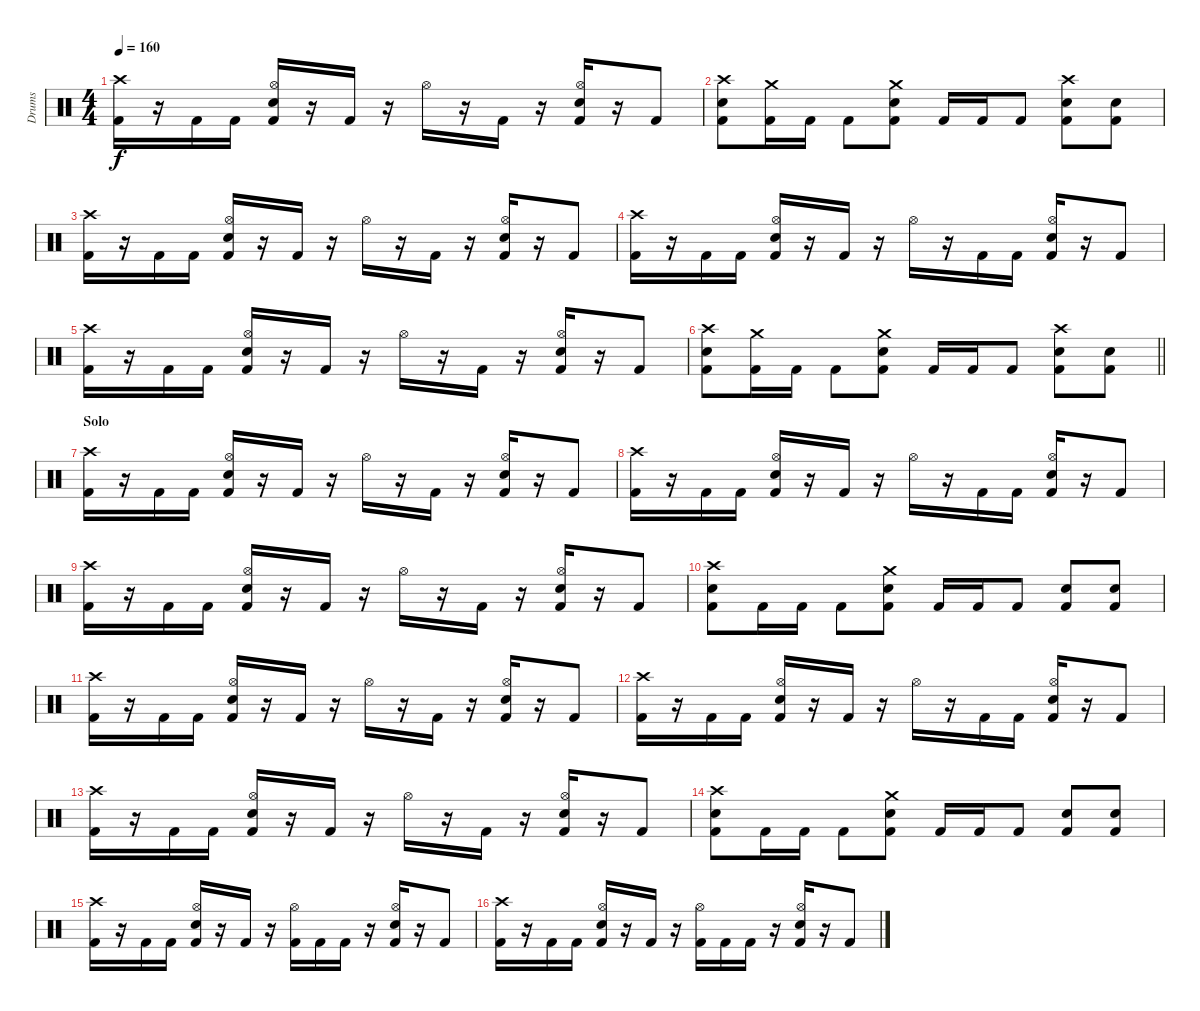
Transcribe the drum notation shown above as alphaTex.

\track ("Drums" "Drums") {instrument percussion}
\staff {score}
\articulation defaults
\ts (4 4)
\tempo 160
\clef neutral
\ks c
("Crash high (hit)" "Kick (hit) 2").16{dy f} r.16 "Kick (hit) 2".16 "Kick (hit) 2".16 ("Hi-Hat (open)" "Electric Snare (hit)" "Kick (hit) 2").16 r.16 "Kick (hit) 2".16 r.16 "Hi-Hat (open)".16 r.16 "Kick (hit) 2".16 r.16 ("Hi-Hat (open)" "Electric Snare (hit)" "Kick (hit) 2").16 r.16 "Kick (hit) 2".8 |
("Crash high (hit)" "Electric Snare (hit)" "Kick (hit) 2").8 ("Crash medium (hit)" "Kick (hit) 2").16 "Kick (hit) 2".16 "Kick (hit) 2".8 ("Crash medium (hit)" "Electric Snare (hit)" "Kick (hit) 2").8 "Kick (hit) 2".16 "Kick (hit) 2".16 "Kick (hit) 2".8 ("Crash high (hit)" "Electric Snare (hit)" "Kick (hit) 2").8 ("Electric Snare (hit)" "Kick (hit) 2").8 |
("Crash high (hit)" "Kick (hit) 2").16 r.16 "Kick (hit) 2".16 "Kick (hit) 2".16 ("Hi-Hat (open)" "Electric Snare (hit)" "Kick (hit) 2").16 r.16 "Kick (hit) 2".16 r.16 "Hi-Hat (open)".16 r.16 "Kick (hit) 2".16 r.16 ("Hi-Hat (open)" "Electric Snare (hit)" "Kick (hit) 2").16 r.16 "Kick (hit) 2".8 |
("Crash high (hit)" "Kick (hit) 2").16 r.16 "Kick (hit) 2".16 "Kick (hit) 2".16 ("Hi-Hat (open)" "Electric Snare (hit)" "Kick (hit) 2").16 r.16 "Kick (hit) 2".16 r.16 "Hi-Hat (open)".16 r.16 "Kick (hit) 2".16 "Kick (hit) 2".16 ("Hi-Hat (open)" "Electric Snare (hit)" "Kick (hit) 2").16 r.16 "Kick (hit) 2".8 |
("Crash high (hit)" "Kick (hit) 2").16 r.16 "Kick (hit) 2".16 "Kick (hit) 2".16 ("Hi-Hat (open)" "Electric Snare (hit)" "Kick (hit) 2").16 r.16 "Kick (hit) 2".16 r.16 "Hi-Hat (open)".16 r.16 "Kick (hit) 2".16 r.16 ("Hi-Hat (open)" "Electric Snare (hit)" "Kick (hit) 2").16 r.16 "Kick (hit) 2".8 |
\barLineRight lightlight
("Crash high (hit)" "Electric Snare (hit)" "Kick (hit) 2").8 ("Crash medium (hit)" "Kick (hit) 2").16 "Kick (hit) 2".16 "Kick (hit) 2".8 ("Crash medium (hit)" "Electric Snare (hit)" "Kick (hit) 2").8 "Kick (hit) 2".16 "Kick (hit) 2".16 "Kick (hit) 2".8 ("Crash high (hit)" "Electric Snare (hit)" "Kick (hit) 2").8 ("Electric Snare (hit)" "Kick (hit) 2").8 |
\section ("" "Solo")
("Crash high (hit)" "Kick (hit) 2").16 r.16 "Kick (hit) 2".16 "Kick (hit) 2".16 ("Hi-Hat (open)" "Electric Snare (hit)" "Kick (hit) 2").16 r.16 "Kick (hit) 2".16 r.16 "Hi-Hat (open)".16 r.16 "Kick (hit) 2".16 r.16 ("Hi-Hat (open)" "Electric Snare (hit)" "Kick (hit) 2").16 r.16 "Kick (hit) 2".8 |
("Crash high (hit)" "Kick (hit) 2").16 r.16 "Kick (hit) 2".16 "Kick (hit) 2".16 ("Hi-Hat (open)" "Electric Snare (hit)" "Kick (hit) 2").16 r.16 "Kick (hit) 2".16 r.16 "Hi-Hat (open)".16 r.16 "Kick (hit) 2".16 "Kick (hit) 2".16 ("Hi-Hat (open)" "Electric Snare (hit)" "Kick (hit) 2").16 r.16 "Kick (hit) 2".8 |
("Crash high (hit)" "Kick (hit) 2").16 r.16 "Kick (hit) 2".16 "Kick (hit) 2".16 ("Hi-Hat (open)" "Electric Snare (hit)" "Kick (hit) 2").16 r.16 "Kick (hit) 2".16 r.16 "Hi-Hat (open)".16 r.16 "Kick (hit) 2".16 r.16 ("Hi-Hat (open)" "Electric Snare (hit)" "Kick (hit) 2").16 r.16 "Kick (hit) 2".8 |
("Crash high (hit)" "Electric Snare (hit)" "Kick (hit) 2").8 "Kick (hit) 2".16 "Kick (hit) 2".16 "Kick (hit) 2".8 ("Crash medium (hit)" "Electric Snare (hit)" "Kick (hit) 2").8 "Kick (hit) 2".16 "Kick (hit) 2".16 "Kick (hit) 2".8 ("Electric Snare (hit)" "Kick (hit) 2").8 ("Electric Snare (hit)" "Kick (hit) 2").8 |
("Crash high (hit)" "Kick (hit) 2").16 r.16 "Kick (hit) 2".16 "Kick (hit) 2".16 ("Hi-Hat (open)" "Electric Snare (hit)" "Kick (hit) 2").16 r.16 "Kick (hit) 2".16 r.16 "Hi-Hat (open)".16 r.16 "Kick (hit) 2".16 r.16 ("Hi-Hat (open)" "Electric Snare (hit)" "Kick (hit) 2").16 r.16 "Kick (hit) 2".8 |
("Crash high (hit)" "Kick (hit) 2").16 r.16 "Kick (hit) 2".16 "Kick (hit) 2".16 ("Hi-Hat (open)" "Electric Snare (hit)" "Kick (hit) 2").16 r.16 "Kick (hit) 2".16 r.16 "Hi-Hat (open)".16 r.16 "Kick (hit) 2".16 "Kick (hit) 2".16 ("Hi-Hat (open)" "Electric Snare (hit)" "Kick (hit) 2").16 r.16 "Kick (hit) 2".8 |
("Crash high (hit)" "Kick (hit) 2").16 r.16 "Kick (hit) 2".16 "Kick (hit) 2".16 ("Hi-Hat (open)" "Electric Snare (hit)" "Kick (hit) 2").16 r.16 "Kick (hit) 2".16 r.16 "Hi-Hat (open)".16 r.16 "Kick (hit) 2".16 r.16 ("Hi-Hat (open)" "Electric Snare (hit)" "Kick (hit) 2").16 r.16 "Kick (hit) 2".8 |
("Crash high (hit)" "Electric Snare (hit)" "Kick (hit) 2").8 "Kick (hit) 2".16 "Kick (hit) 2".16 "Kick (hit) 2".8 ("Crash medium (hit)" "Electric Snare (hit)" "Kick (hit) 2").8 "Kick (hit) 2".16 "Kick (hit) 2".16 "Kick (hit) 2".8 ("Electric Snare (hit)" "Kick (hit) 2").8 ("Electric Snare (hit)" "Kick (hit) 2").8 |
("Crash high (hit)" "Kick (hit) 2").16 r.16 "Kick (hit) 2".16 "Kick (hit) 2".16 ("Hi-Hat (open)" "Electric Snare (hit)" "Kick (hit) 2").16 r.16 "Kick (hit) 2".16 r.16 ("Hi-Hat (open)" "Kick (hit) 2").16 "Kick (hit) 2".16 "Kick (hit) 2".16 r.16 ("Hi-Hat (open)" "Electric Snare (hit)" "Kick (hit) 2").16 r.16 "Kick (hit) 2".8 |
("Crash high (hit)" "Kick (hit) 2").16 r.16 "Kick (hit) 2".16 "Kick (hit) 2".16 ("Hi-Hat (open)" "Electric Snare (hit)" "Kick (hit) 2").16 r.16 "Kick (hit) 2".16 r.16 ("Hi-Hat (open)" "Kick (hit) 2").16 "Kick (hit) 2".16 "Kick (hit) 2".16 r.16 ("Hi-Hat (open)" "Electric Snare (hit)" "Kick (hit) 2").16 r.16 "Kick (hit) 2".8
